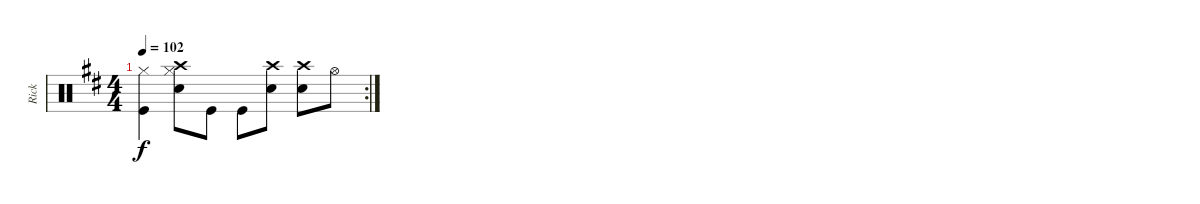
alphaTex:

\track ("Rick" "Rick") {instrument percussion}
\staff {score}
\articulation defaults
\rc 2
\ts (4 4)
\tempo 102
\clef neutral
\ks d
("Hi-Hat (closed)" "Kick (hit)").4{dy f} ("Crash high (hit)" "Hi-Hat (closed)" "Snare (hit) 2").8 "Kick (hit)".8 "Kick (hit)".8 ("Crash high (hit)" "Snare (hit) 2").8 ("Crash high (hit)" "Snare (hit) 2").8 "Hi-Hat (open)".8
